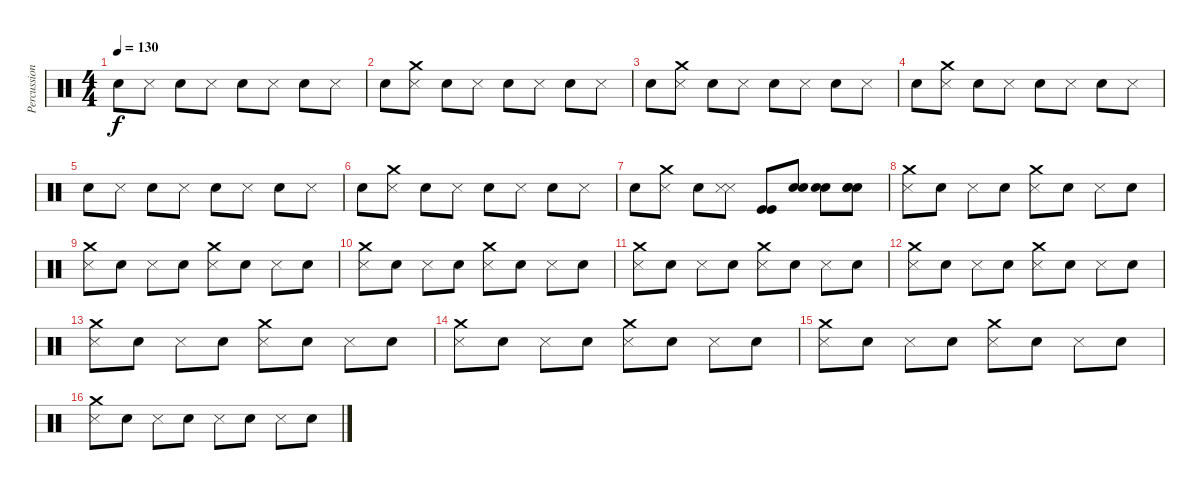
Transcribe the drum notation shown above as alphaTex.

\track ("Percussion" "Percussion") {instrument percussion}
\staff {score}
\articulation defaults
\ts (4 4)
\tempo 130
\clef neutral
\ks c "Electric Snare (hit)".8{dy f} "Metronome (hit)".8 "Electric Snare (hit)".8 "Metronome (hit)".8 "Electric Snare (hit)".8 "Metronome (hit)".8 "Electric Snare (hit)".8 "Metronome (hit)".8
|
"Electric Snare (hit)".8 ("Crash medium (hit)" "Metronome (hit)").8 "Electric Snare (hit)".8 "Metronome (hit)".8 "Electric Snare (hit)".8 "Metronome (hit)".8 "Electric Snare (hit)".8 "Metronome (hit)".8 |
"Electric Snare (hit)".8 ("Crash medium (hit)" "Metronome (hit)").8 "Electric Snare (hit)".8 "Metronome (hit)".8 "Electric Snare (hit)".8 "Metronome (hit)".8 "Electric Snare (hit)".8 "Metronome (hit)".8 |
"Electric Snare (hit)".8 ("Crash medium (hit)" "Metronome (hit)").8 "Electric Snare (hit)".8 "Metronome (hit)".8 "Electric Snare (hit)".8 "Metronome (hit)".8 "Electric Snare (hit)".8 "Metronome (hit)".8 |
"Electric Snare (hit)".8 "Metronome (hit)".8 "Electric Snare (hit)".8 "Metronome (hit)".8 "Electric Snare (hit)".8 "Metronome (hit)".8 "Electric Snare (hit)".8 "Metronome (hit)".8 |
"Electric Snare (hit)".8 ("Crash medium (hit)" "Metronome (hit)").8 "Electric Snare (hit)".8 "Metronome (hit)".8 "Electric Snare (hit)".8 "Metronome (hit)".8 "Electric Snare (hit)".8 "Metronome (hit)".8 |
"Electric Snare (hit)".8 ("Crash medium (hit)" "Metronome (hit)").8 "Electric Snare (hit)".8 ("Metronome (hit)" "Metronome (hit)").8 ("Kick (hit)" "Kick (hit)").8 ("Snare (hit) 2" "Snare (hit) 2").8 ("Electric Snare (hit)" "Electric Snare (hit)").8 ("Electric Snare (hit)" "Electric Snare (hit)" "Electric Snare (hit)").8 |
("Crash medium (hit)" "Metronome (hit)").8 "Electric Snare (hit)".8 "Metronome (hit)".8 "Electric Snare (hit)".8 ("Crash medium (hit)" "Metronome (hit)").8 "Electric Snare (hit)".8 "Metronome (hit)".8 "Electric Snare (hit)".8 |
("Crash medium (hit)" "Metronome (hit)").8 "Electric Snare (hit)".8 "Metronome (hit)".8 "Electric Snare (hit)".8 ("Crash medium (hit)" "Metronome (hit)").8 "Electric Snare (hit)".8 "Metronome (hit)".8 "Electric Snare (hit)".8 |
("Crash medium (hit)" "Metronome (hit)").8 "Electric Snare (hit)".8 "Metronome (hit)".8 "Electric Snare (hit)".8 ("Crash medium (hit)" "Metronome (hit)").8 "Electric Snare (hit)".8 "Metronome (hit)".8 "Electric Snare (hit)".8 |
("Crash medium (hit)" "Metronome (hit)").8 "Electric Snare (hit)".8 "Metronome (hit)".8 "Electric Snare (hit)".8 ("Crash medium (hit)" "Metronome (hit)").8 "Electric Snare (hit)".8 "Metronome (hit)".8 "Electric Snare (hit)".8 |
("Crash medium (hit)" "Metronome (hit)").8 "Electric Snare (hit)".8 "Metronome (hit)".8 "Electric Snare (hit)".8 ("Crash medium (hit)" "Metronome (hit)").8 "Electric Snare (hit)".8 "Metronome (hit)".8 "Electric Snare (hit)".8 |
("Crash medium (hit)" "Metronome (hit)").8 "Electric Snare (hit)".8 "Metronome (hit)".8 "Electric Snare (hit)".8 ("Crash medium (hit)" "Metronome (hit)").8 "Electric Snare (hit)".8 "Metronome (hit)".8 "Electric Snare (hit)".8 |
("Crash medium (hit)" "Metronome (hit)").8 "Electric Snare (hit)".8 "Metronome (hit)".8 "Electric Snare (hit)".8 ("Crash medium (hit)" "Metronome (hit)").8 "Electric Snare (hit)".8 "Metronome (hit)".8 "Electric Snare (hit)".8 |
("Crash medium (hit)" "Metronome (hit)").8 "Electric Snare (hit)".8 "Metronome (hit)".8 "Electric Snare (hit)".8 ("Crash medium (hit)" "Metronome (hit)").8 "Electric Snare (hit)".8 "Metronome (hit)".8 "Electric Snare (hit)".8 |
("Crash medium (hit)" "Metronome (hit)").8 "Electric Snare (hit)".8 "Metronome (hit)".8 "Electric Snare (hit)".8 "Metronome (hit)".8 "Electric Snare (hit)".8 "Metronome (hit)".8 "Electric Snare (hit)".8
